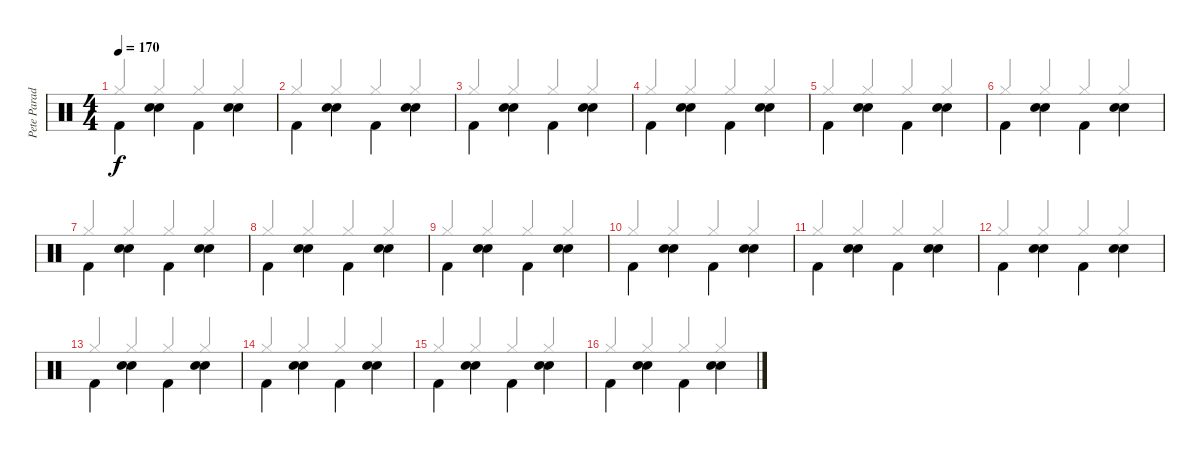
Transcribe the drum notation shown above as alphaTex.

\track ("Pete Parada" "Pete Parad") {instrument percussion}
\staff {score}
\articulation defaults
\voice
\ts (4 4)
\tempo 170
\clef neutral
\ks c "Kick (hit) 2".4{dy f beam Down}
("Electric Snare (hit)" "Electric Snare (hit)").4{beam Down} "Kick (hit) 2".4{beam Down} ("Electric Snare (hit)" "Electric Snare (hit)").4{beam Down} |
"Kick (hit) 2".4{beam Down} ("Electric Snare (hit)" "Electric Snare (hit)").4{beam Down} "Kick (hit) 2".4{beam Down} ("Electric Snare (hit)" "Electric Snare (hit)").4{beam Down} |
"Kick (hit) 2".4{beam Down} ("Electric Snare (hit)" "Electric Snare (hit)").4{beam Down} "Kick (hit) 2".4{beam Down} ("Electric Snare (hit)" "Electric Snare (hit)").4{beam Down} |
"Kick (hit) 2".4{beam Down} ("Electric Snare (hit)" "Electric Snare (hit)").4{beam Down} "Kick (hit) 2".4{beam Down} ("Electric Snare (hit)" "Electric Snare (hit)").4{beam Down} |
"Kick (hit) 2".4{beam Down} ("Electric Snare (hit)" "Electric Snare (hit)").4{beam Down} "Kick (hit) 2".4{beam Down} ("Electric Snare (hit)" "Electric Snare (hit)").4{beam Down} |
"Kick (hit) 2".4{beam Down} ("Electric Snare (hit)" "Electric Snare (hit)").4{beam Down} "Kick (hit) 2".4{beam Down} ("Electric Snare (hit)" "Electric Snare (hit)").4{beam Down} |
"Kick (hit) 2".4{beam Down} ("Electric Snare (hit)" "Electric Snare (hit)").4{beam Down} "Kick (hit) 2".4{beam Down} ("Electric Snare (hit)" "Electric Snare (hit)").4{beam Down} |
"Kick (hit) 2".4{beam Down} ("Electric Snare (hit)" "Electric Snare (hit)").4{beam Down} "Kick (hit) 2".4{beam Down} ("Electric Snare (hit)" "Electric Snare (hit)").4{beam Down} |
"Kick (hit) 2".4{beam Down} ("Electric Snare (hit)" "Electric Snare (hit)").4{beam Down} "Kick (hit) 2".4{beam Down} ("Electric Snare (hit)" "Electric Snare (hit)").4{beam Down} |
"Kick (hit) 2".4{beam Down} ("Electric Snare (hit)" "Electric Snare (hit)").4{beam Down} "Kick (hit) 2".4{beam Down} ("Electric Snare (hit)" "Electric Snare (hit)").4{beam Down} |
"Kick (hit) 2".4{beam Down} ("Electric Snare (hit)" "Electric Snare (hit)").4{beam Down} "Kick (hit) 2".4{beam Down} ("Electric Snare (hit)" "Electric Snare (hit)").4{beam Down} |
"Kick (hit) 2".4{beam Down} ("Electric Snare (hit)" "Electric Snare (hit)").4{beam Down} "Kick (hit) 2".4{beam Down} ("Electric Snare (hit)" "Electric Snare (hit)").4{beam Down} |
"Kick (hit) 2".4{beam Down} ("Electric Snare (hit)" "Electric Snare (hit)").4{beam Down} "Kick (hit) 2".4{beam Down} ("Electric Snare (hit)" "Electric Snare (hit)").4{beam Down} |
"Kick (hit) 2".4{beam Down} ("Electric Snare (hit)" "Electric Snare (hit)").4{beam Down} "Kick (hit) 2".4{beam Down} ("Electric Snare (hit)" "Electric Snare (hit)").4{beam Down} |
"Kick (hit) 2".4{beam Down} ("Electric Snare (hit)" "Electric Snare (hit)").4{beam Down} "Kick (hit) 2".4{beam Down} ("Electric Snare (hit)" "Electric Snare (hit)").4{beam Down} |
"Kick (hit) 2".4{beam Down} ("Electric Snare (hit)" "Electric Snare (hit)").4{beam Down} "Kick (hit) 2".4{beam Down} ("Electric Snare (hit)" "Electric Snare (hit)").4{beam Down}
\voice
\clef neutral
\ottava regular
\simile none
\ks c "Hi-Hat (closed)".4{dy f beam Up} "Hi-Hat (closed)".4{beam Up} "Hi-Hat (closed)".4{beam Up} "Hi-Hat (closed)".4{beam Up}
|
"Hi-Hat (closed)".4{beam Up} "Hi-Hat (closed)".4{beam Up} "Hi-Hat (closed)".4{beam Up} "Hi-Hat (closed)".4{beam Up} |
"Hi-Hat (closed)".4{beam Up} "Hi-Hat (closed)".4{beam Up} "Hi-Hat (closed)".4{beam Up} "Hi-Hat (closed)".4{beam Up} |
"Hi-Hat (closed)".4{beam Up} "Hi-Hat (closed)".4{beam Up} "Hi-Hat (closed)".4{beam Up} "Hi-Hat (closed)".4{beam Up} |
"Hi-Hat (closed)".4{beam Up} "Hi-Hat (closed)".4{beam Up} "Hi-Hat (closed)".4{beam Up} "Hi-Hat (closed)".4{beam Up} |
"Hi-Hat (closed)".4{beam Up} "Hi-Hat (closed)".4{beam Up} "Hi-Hat (closed)".4{beam Up} "Hi-Hat (closed)".4{beam Up} |
"Hi-Hat (closed)".4{beam Up} "Hi-Hat (closed)".4{beam Up} "Hi-Hat (closed)".4{beam Up} "Hi-Hat (closed)".4{beam Up} |
"Hi-Hat (closed)".4{beam Up} "Hi-Hat (closed)".4{beam Up} "Hi-Hat (closed)".4{beam Up} "Hi-Hat (closed)".4{beam Up} |
"Hi-Hat (closed)".4{beam Up} "Hi-Hat (closed)".4{beam Up} "Hi-Hat (closed)".4{beam Up} "Hi-Hat (closed)".4{beam Up} |
"Hi-Hat (closed)".4{beam Up} "Hi-Hat (closed)".4{beam Up} "Hi-Hat (closed)".4{beam Up} "Hi-Hat (closed)".4{beam Up} |
"Hi-Hat (closed)".4{beam Up} "Hi-Hat (closed)".4{beam Up} "Hi-Hat (closed)".4{beam Up} "Hi-Hat (closed)".4{beam Up} |
"Hi-Hat (closed)".4{beam Up} "Hi-Hat (closed)".4{beam Up} "Hi-Hat (closed)".4{beam Up} "Hi-Hat (closed)".4{beam Up} |
"Hi-Hat (closed)".4{beam Up} "Hi-Hat (closed)".4{beam Up} "Hi-Hat (closed)".4{beam Up} "Hi-Hat (closed)".4{beam Up} |
"Hi-Hat (closed)".4{beam Up} "Hi-Hat (closed)".4{beam Up} "Hi-Hat (closed)".4{beam Up} "Hi-Hat (closed)".4{beam Up} |
"Hi-Hat (closed)".4{beam Up} "Hi-Hat (closed)".4{beam Up} "Hi-Hat (closed)".4{beam Up} "Hi-Hat (closed)".4{beam Up} |
"Hi-Hat (closed)".4{beam Up} "Hi-Hat (closed)".4{beam Up} "Hi-Hat (closed)".4{beam Up} "Hi-Hat (closed)".4{beam Up}
